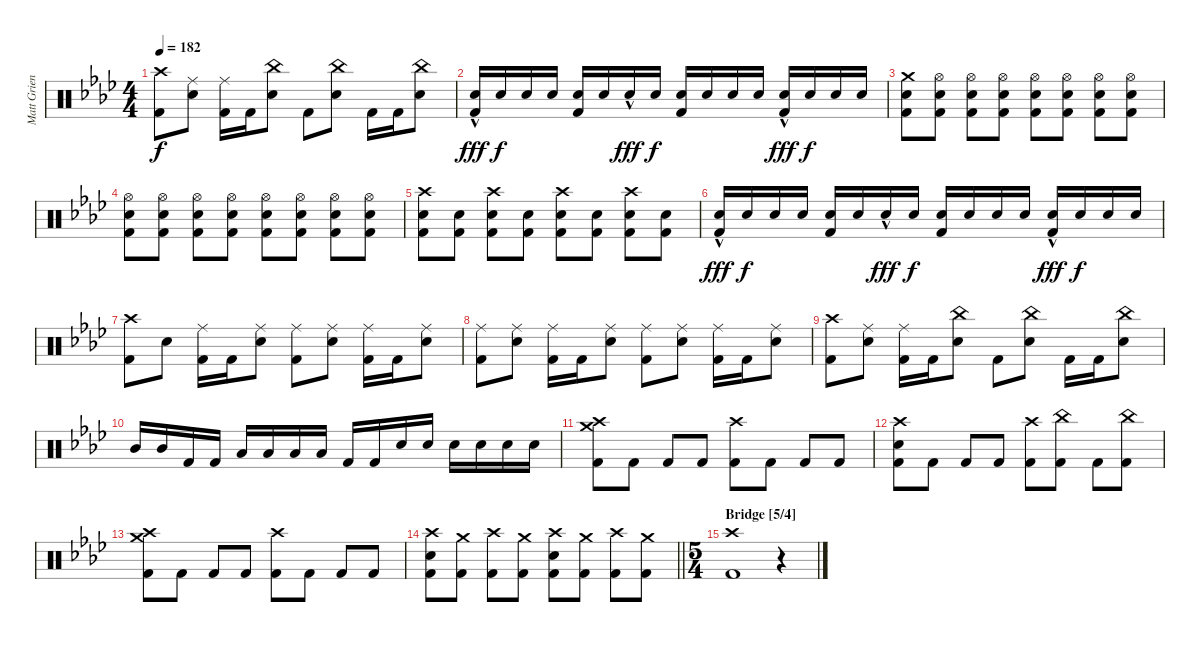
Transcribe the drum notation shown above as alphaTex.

\track ("Matt Griener [Drum Kit]" "Matt Grien") {instrument percussion}
\staff {score}
\articulation defaults
\ts (4 4)
\tempo 182
\clef neutral
\ks fminor
("Crash high (hit)" "Kick (hit) 2").8{dy f} ("Ride (middle)" "Electric Snare (hit)").8 ("Ride (middle)" "Kick (hit) 2").16 "Kick (hit) 2".16 ("China (hit)" "Electric Snare (hit)").8 "Kick (hit) 2".8 ("China (hit)" "Electric Snare (hit)").8 "Kick (hit) 2".16 "Kick (hit) 2".16 ("China (hit)" "Electric Snare (hit)").8 |
("Electric Snare (hit)"{hac} "Kick (hit) 2").16{dy fff} "Electric Snare (hit)".16{dy f} "Electric Snare (hit)".16 "Electric Snare (hit)".16 ("Electric Snare (hit)" "Kick (hit) 2").16 "Electric Snare (hit)".16 "Electric Snare (hit)"{hac}.16{dy fff} "Electric Snare (hit)".16{dy f} ("Electric Snare (hit)" "Kick (hit) 2").16 "Electric Snare (hit)".16 "Electric Snare (hit)".16 "Electric Snare (hit)".16 ("Electric Snare (hit)"{hac} "Kick (hit) 2").16{dy fff} "Electric Snare (hit)".16{dy f} "Electric Snare (hit)".16 "Electric Snare (hit)".16 |
("Crash medium (hit)" "Electric Snare (hit)" "Kick (hit) 2").8 ("Hi-Hat (open)" "Electric Snare (hit)" "Kick (hit) 2").8 ("Hi-Hat (open)" "Electric Snare (hit)" "Kick (hit) 2").8 ("Hi-Hat (open)" "Electric Snare (hit)" "Kick (hit) 2").8 ("Hi-Hat (open)" "Electric Snare (hit)" "Kick (hit) 2").8 ("Hi-Hat (open)" "Electric Snare (hit)" "Kick (hit) 2").8 ("Hi-Hat (open)" "Electric Snare (hit)" "Kick (hit) 2").8 ("Hi-Hat (open)" "Electric Snare (hit)" "Kick (hit) 2").8 |
("Hi-Hat (open)" "Electric Snare (hit)" "Kick (hit) 2").8 ("Hi-Hat (open)" "Electric Snare (hit)" "Kick (hit) 2").8 ("Hi-Hat (open)" "Electric Snare (hit)" "Kick (hit) 2").8 ("Hi-Hat (open)" "Electric Snare (hit)" "Kick (hit) 2").8 ("Hi-Hat (open)" "Electric Snare (hit)" "Kick (hit) 2").8 ("Hi-Hat (open)" "Electric Snare (hit)" "Kick (hit) 2").8 ("Hi-Hat (open)" "Electric Snare (hit)" "Kick (hit) 2").8 ("Hi-Hat (open)" "Electric Snare (hit)" "Kick (hit) 2").8 |
("Crash high (hit)" "Electric Snare (hit)" "Kick (hit) 2").8 ("Electric Snare (hit)" "Kick (hit) 2").8 ("Crash high (hit)" "Electric Snare (hit)" "Kick (hit) 2").8 ("Electric Snare (hit)" "Kick (hit) 2").8 ("Crash high (hit)" "Electric Snare (hit)" "Kick (hit) 2").8 ("Electric Snare (hit)" "Kick (hit) 2").8 ("Crash high (hit)" "Electric Snare (hit)" "Kick (hit) 2").8 ("Electric Snare (hit)" "Kick (hit) 2").8 |
("Electric Snare (hit)"{hac} "Kick (hit) 2").16{dy fff} "Electric Snare (hit)".16{dy f} "Electric Snare (hit)".16 "Electric Snare (hit)".16 ("Electric Snare (hit)" "Kick (hit) 2").16 "Electric Snare (hit)".16 "Electric Snare (hit)"{hac}.16{dy fff} "Electric Snare (hit)".16{dy f} ("Electric Snare (hit)" "Kick (hit) 2").16 "Electric Snare (hit)".16 "Electric Snare (hit)".16 "Electric Snare (hit)".16 ("Electric Snare (hit)"{hac} "Kick (hit) 2").16{dy fff} "Electric Snare (hit)".16{dy f} "Electric Snare (hit)".16 "Electric Snare (hit)".16 |
("Crash high (hit)" "Kick (hit) 2").8 "Electric Snare (hit)".8 ("Ride (middle)" "Kick (hit) 2").16 "Kick (hit) 2".16 ("Ride (middle)" "Electric Snare (hit)").8 ("Ride (middle)" "Kick (hit) 2").8 ("Ride (middle)" "Electric Snare (hit)").8 ("Ride (middle)" "Kick (hit) 2").16 "Kick (hit) 2".16 ("Ride (middle)" "Electric Snare (hit)").8 |
("Ride (middle)" "Kick (hit) 2").8 ("Ride (middle)" "Electric Snare (hit)").8 ("Ride (middle)" "Kick (hit) 2").16 "Kick (hit) 2".16 ("Ride (middle)" "Electric Snare (hit)").8 ("Ride (middle)" "Kick (hit) 2").8 ("Ride (middle)" "Electric Snare (hit)").8 ("Ride (middle)" "Kick (hit) 2").16 "Kick (hit) 2".16 ("Ride (middle)" "Electric Snare (hit)").8 |
("Crash high (hit)" "Kick (hit) 2").8 ("Ride (middle)" "Electric Snare (hit)").8 ("Ride (middle)" "Kick (hit) 2").16 "Kick (hit) 2".16 ("China (hit)" "Electric Snare (hit)").8 "Kick (hit) 2".8 ("China (hit)" "Electric Snare (hit)").8 "Kick (hit) 2".16 "Kick (hit) 2".16 ("China (hit)" "Electric Snare (hit)").8 |
"Mid Tom (hit)".16 "Mid Tom (hit)".16 "Kick (hit) 2".16 "Kick (hit) 2".16 "Low Tom (hit)".16 "Low Tom (hit)".16 "Low Floor Tom (hit)".16 "Low Floor Tom (hit)".16 "Kick (hit) 2".16 "Kick (hit) 2".16 "Electric Snare (hit)".16 "Electric Snare (hit)".16 "Electric Snare (hit)".16 "Electric Snare (hit)".16 "Electric Snare (hit)".16 "Electric Snare (hit)".16 |
("Crash high (hit)" "Crash medium (hit)" "Kick (hit) 2").8 "Kick (hit) 2".8 "Kick (hit) 2".8 "Kick (hit) 2".8 ("Crash high (hit)" "Kick (hit) 2").8 "Kick (hit) 2".8 "Kick (hit) 2".8 "Kick (hit) 2".8 |
("Crash high (hit)" "Electric Snare (hit)" "Kick (hit) 2").8 "Kick (hit) 2".8 "Kick (hit) 2".8 "Kick (hit) 2".8 ("Crash high (hit)" "Kick (hit) 2").8 ("China (hit)" "Kick (hit) 2").8 "Kick (hit) 2".8 ("China (hit)" "Kick (hit) 2").8 |
("Crash high (hit)" "Crash medium (hit)" "Kick (hit) 2").8 "Kick (hit) 2".8 "Kick (hit) 2".8 "Kick (hit) 2".8 ("Crash high (hit)" "Kick (hit) 2").8 "Kick (hit) 2".8 "Kick (hit) 2".8 "Kick (hit) 2".8 |
\barLineRight lightlight
("Crash high (hit)" "Electric Snare (hit)" "Kick (hit) 2").8 ("Crash medium (hit)" "Kick (hit) 2").8 ("Crash high (hit)" "Kick (hit) 2").8 ("Crash medium (hit)" "Kick (hit) 2").8 ("Crash high (hit)" "Electric Snare (hit)" "Kick (hit) 2").8 ("Crash medium (hit)" "Kick (hit) 2").8 ("Crash high (hit)" "Kick (hit) 2").8 ("Crash medium (hit)" "Kick (hit) 2").8 |
\ts (5 4)
\section ("" "Bridge [5/4]")
("Crash high (hit)" "Kick (hit) 2").1 r.4
